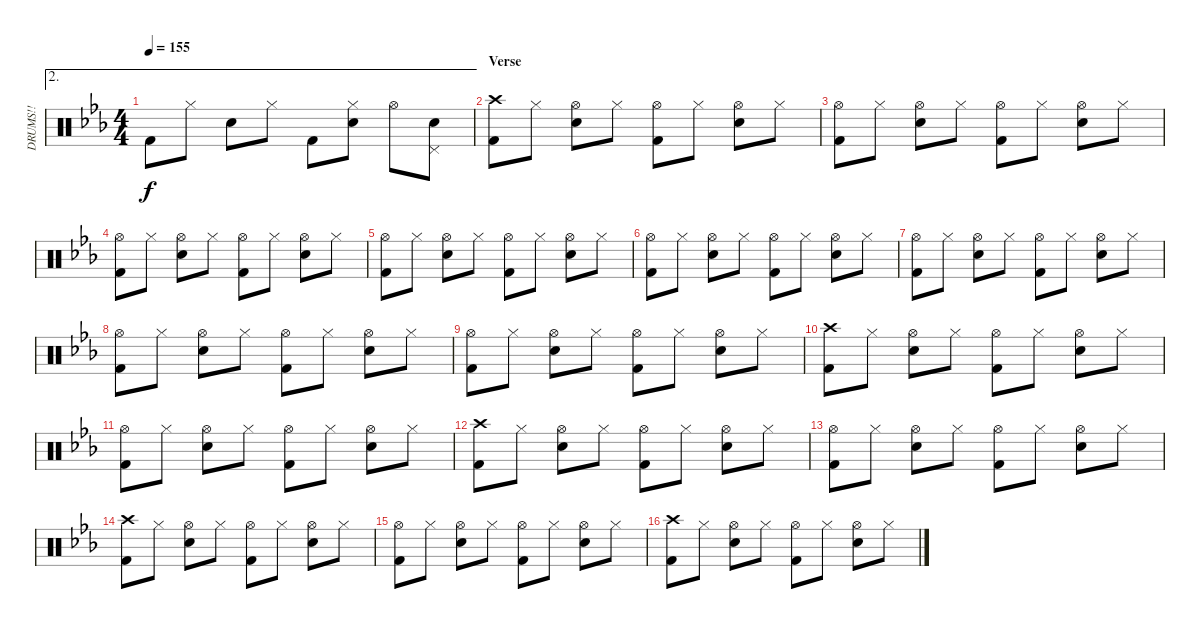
\track ("DRUMS!!" "DRUMS!!") {instrument percussion}
\staff {score}
\articulation defaults
\ae 2
\ts (4 4)
\tempo 155
\clef neutral
\ks cminor "Kick (hit) 2".8{dy f} "Hi-Hat (closed)".8 "Snare (hit) 2".8 "Hi-Hat (closed)".8 "Kick (hit) 2".8
("Hi-Hat (closed)" "Snare (hit) 2").8 "Hi-Hat (open)".8 ("Pedal Hi-Hat (hit)" "Snare (hit) 2").8 |
\section ("" "Verse")
("Crash high (hit)" "Kick (hit) 2").8 "Hi-Hat (closed)".8 ("Hi-Hat (open)" "Snare (hit) 2").8 "Hi-Hat (closed)".8 ("Hi-Hat (open)" "Kick (hit) 2").8 "Hi-Hat (closed)".8 ("Hi-Hat (open)" "Snare (hit) 2").8 "Hi-Hat (closed)".8 |
("Hi-Hat (open)" "Kick (hit) 2").8 "Hi-Hat (closed)".8 ("Hi-Hat (open)" "Snare (hit) 2").8 "Hi-Hat (closed)".8 ("Hi-Hat (open)" "Kick (hit) 2").8 "Hi-Hat (closed)".8 ("Hi-Hat (open)" "Snare (hit) 2").8 "Hi-Hat (closed)".8 |
("Hi-Hat (open)" "Kick (hit) 2").8 "Hi-Hat (closed)".8 ("Hi-Hat (open)" "Snare (hit) 2").8 "Hi-Hat (closed)".8 ("Hi-Hat (open)" "Kick (hit) 2").8 "Hi-Hat (closed)".8 ("Hi-Hat (open)" "Snare (hit) 2").8 "Hi-Hat (closed)".8 |
("Hi-Hat (open)" "Kick (hit) 2").8 "Hi-Hat (closed)".8 ("Hi-Hat (open)" "Snare (hit) 2").8 "Hi-Hat (closed)".8 ("Hi-Hat (open)" "Kick (hit) 2").8 "Hi-Hat (closed)".8 ("Hi-Hat (open)" "Snare (hit) 2").8 "Hi-Hat (closed)".8 |
("Hi-Hat (open)" "Kick (hit) 2").8 "Hi-Hat (closed)".8 ("Hi-Hat (open)" "Snare (hit) 2").8 "Hi-Hat (closed)".8 ("Hi-Hat (open)" "Kick (hit) 2").8 "Hi-Hat (closed)".8 ("Hi-Hat (open)" "Snare (hit) 2").8 "Hi-Hat (closed)".8 |
("Hi-Hat (open)" "Kick (hit) 2").8 "Hi-Hat (closed)".8 ("Hi-Hat (open)" "Snare (hit) 2").8 "Hi-Hat (closed)".8 ("Hi-Hat (open)" "Kick (hit) 2").8 "Hi-Hat (closed)".8 ("Hi-Hat (open)" "Snare (hit) 2").8 "Hi-Hat (closed)".8 |
("Hi-Hat (open)" "Kick (hit) 2").8 "Hi-Hat (closed)".8 ("Hi-Hat (open)" "Snare (hit) 2").8 "Hi-Hat (closed)".8 ("Hi-Hat (open)" "Kick (hit) 2").8 "Hi-Hat (closed)".8 ("Hi-Hat (open)" "Snare (hit) 2").8 "Hi-Hat (closed)".8 |
("Hi-Hat (open)" "Kick (hit) 2").8 "Hi-Hat (closed)".8 ("Hi-Hat (open)" "Snare (hit) 2").8 "Hi-Hat (closed)".8 ("Hi-Hat (open)" "Kick (hit) 2").8 "Hi-Hat (closed)".8 ("Hi-Hat (open)" "Snare (hit) 2").8 "Hi-Hat (closed)".8 |
("Crash high (hit)" "Kick (hit) 2").8 "Hi-Hat (closed)".8 ("Hi-Hat (open)" "Snare (hit) 2").8 "Hi-Hat (closed)".8 ("Hi-Hat (open)" "Kick (hit) 2").8 "Hi-Hat (closed)".8 ("Hi-Hat (open)" "Snare (hit) 2").8 "Hi-Hat (closed)".8 |
("Hi-Hat (open)" "Kick (hit) 2").8 "Hi-Hat (closed)".8 ("Hi-Hat (open)" "Snare (hit) 2").8 "Hi-Hat (closed)".8 ("Hi-Hat (open)" "Kick (hit) 2").8 "Hi-Hat (closed)".8 ("Hi-Hat (open)" "Snare (hit) 2").8 "Hi-Hat (closed)".8 |
("Crash high (hit)" "Kick (hit) 2").8 "Hi-Hat (closed)".8 ("Hi-Hat (open)" "Snare (hit) 2").8 "Hi-Hat (closed)".8 ("Hi-Hat (open)" "Kick (hit) 2").8 "Hi-Hat (closed)".8 ("Hi-Hat (open)" "Snare (hit) 2").8 "Hi-Hat (closed)".8 |
("Hi-Hat (open)" "Kick (hit) 2").8 "Hi-Hat (closed)".8 ("Hi-Hat (open)" "Snare (hit) 2").8 "Hi-Hat (closed)".8 ("Hi-Hat (open)" "Kick (hit) 2").8 "Hi-Hat (closed)".8 ("Hi-Hat (open)" "Snare (hit) 2").8 "Hi-Hat (closed)".8 |
("Crash high (hit)" "Kick (hit) 2").8 "Hi-Hat (closed)".8 ("Hi-Hat (open)" "Snare (hit) 2").8 "Hi-Hat (closed)".8 ("Hi-Hat (open)" "Kick (hit) 2").8 "Hi-Hat (closed)".8 ("Hi-Hat (open)" "Snare (hit) 2").8 "Hi-Hat (closed)".8 |
("Hi-Hat (open)" "Kick (hit) 2").8 "Hi-Hat (closed)".8 ("Hi-Hat (open)" "Snare (hit) 2").8 "Hi-Hat (closed)".8 ("Hi-Hat (open)" "Kick (hit) 2").8 "Hi-Hat (closed)".8 ("Hi-Hat (open)" "Snare (hit) 2").8 "Hi-Hat (closed)".8 |
("Crash high (hit)" "Kick (hit) 2").8 "Hi-Hat (closed)".8 ("Hi-Hat (open)" "Snare (hit) 2").8 "Hi-Hat (closed)".8 ("Hi-Hat (open)" "Kick (hit) 2").8 "Hi-Hat (closed)".8 ("Hi-Hat (open)" "Snare (hit) 2").8 "Hi-Hat (closed)".8
